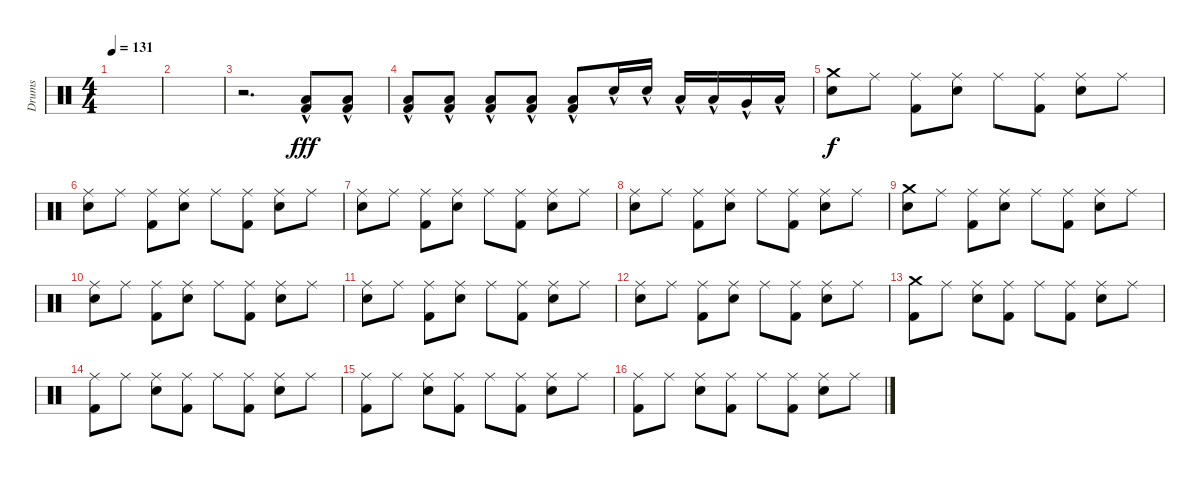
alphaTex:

\track ("Drums" "Drums") {instrument percussion}
\staff {score}
\articulation defaults
\ts (4 4)
\tempo 131
\clef neutral
\ks c
|
|
r.2{d volume 6} ("Kick (hit) 2" "Low Floor Tom (hit)"{hac}).8{dy fff volume 11} ("Kick (hit) 2" "Low Floor Tom (hit)"{hac}).8 |
("Kick (hit) 2"{hac} "Low Floor Tom (hit)"{hac}).8 ("Kick (hit) 2"{hac} "Low Floor Tom (hit)"{hac}).8 ("Kick (hit) 2"{hac} "Low Floor Tom (hit)"{hac}).8 ("Kick (hit) 2"{hac} "Low Floor Tom (hit)"{hac}).8 ("Kick (hit) 2"{hac} "Low Floor Tom (hit)"{hac}).8 "Electric Snare (hit)"{hac}.16 "Electric Snare (hit)"{hac}.16 "Low Tom (hit)"{hac}.16 "Low Tom (hit)"{hac}.16 "Very Low Tom (hit)"{hac}.16 "Low Floor Tom (hit)"{hac}.16 |
("Crash medium (hit)" "Electric Snare (hit)").8{dy f} "Ride (middle)".8 ("Ride (middle)" "Kick (hit) 2").8 ("Ride (middle)" "Electric Snare (hit)").8 "Ride (middle)".8 ("Ride (middle)" "Kick (hit) 2").8 ("Ride (middle)" "Electric Snare (hit)").8 "Ride (middle)".8 |
("Ride (middle)" "Electric Snare (hit)").8 "Ride (middle)".8 ("Ride (middle)" "Kick (hit) 2").8 ("Ride (middle)" "Electric Snare (hit)").8 "Ride (middle)".8 ("Ride (middle)" "Kick (hit) 2").8 ("Ride (middle)" "Electric Snare (hit)").8 "Ride (middle)".8 |
("Ride (middle)" "Electric Snare (hit)").8 "Ride (middle)".8 ("Ride (middle)" "Kick (hit) 2").8 ("Ride (middle)" "Electric Snare (hit)").8 "Ride (middle)".8 ("Ride (middle)" "Kick (hit) 2").8 ("Ride (middle)" "Electric Snare (hit)").8 "Ride (middle)".8 |
("Ride (middle)" "Electric Snare (hit)").8 "Ride (middle)".8 ("Ride (middle)" "Kick (hit) 2").8 ("Ride (middle)" "Electric Snare (hit)").8 "Ride (middle)".8 ("Ride (middle)" "Kick (hit) 2").8 ("Ride (middle)" "Electric Snare (hit)").8 "Ride (middle)".8 |
("Crash medium (hit)" "Electric Snare (hit)").8 "Ride (middle)".8 ("Ride (middle)" "Kick (hit) 2").8 ("Ride (middle)" "Electric Snare (hit)").8 "Ride (middle)".8 ("Ride (middle)" "Kick (hit) 2").8 ("Ride (middle)" "Electric Snare (hit)").8 "Ride (middle)".8 |
("Ride (middle)" "Electric Snare (hit)").8 "Ride (middle)".8 ("Ride (middle)" "Kick (hit) 2").8 ("Ride (middle)" "Electric Snare (hit)").8 "Ride (middle)".8 ("Ride (middle)" "Kick (hit) 2").8 ("Ride (middle)" "Electric Snare (hit)").8 "Ride (middle)".8 |
("Ride (middle)" "Electric Snare (hit)").8 "Ride (middle)".8 ("Ride (middle)" "Kick (hit) 2").8 ("Ride (middle)" "Electric Snare (hit)").8 "Ride (middle)".8 ("Ride (middle)" "Kick (hit) 2").8 ("Ride (middle)" "Electric Snare (hit)").8 "Ride (middle)".8 |
("Ride (middle)" "Electric Snare (hit)").8 "Ride (middle)".8 ("Ride (middle)" "Kick (hit) 2").8 ("Ride (middle)" "Electric Snare (hit)").8 "Ride (middle)".8 ("Ride (middle)" "Kick (hit) 2").8 ("Ride (middle)" "Electric Snare (hit)").8 "Ride (middle)".8 |
("Crash medium (hit)" "Kick (hit) 2").8 "Ride (middle)".8 ("Ride (middle)" "Electric Snare (hit)").8 ("Ride (middle)" "Kick (hit) 2").8 "Ride (middle)".8 ("Ride (middle)" "Kick (hit) 2").8 ("Ride (middle)" "Electric Snare (hit)").8 "Ride (middle)".8 |
("Ride (middle)" "Kick (hit) 2").8 "Ride (middle)".8 ("Ride (middle)" "Electric Snare (hit)").8 ("Ride (middle)" "Kick (hit) 2").8 "Ride (middle)".8 ("Ride (middle)" "Kick (hit) 2").8 ("Ride (middle)" "Electric Snare (hit)").8 "Ride (middle)".8 |
("Ride (middle)" "Kick (hit) 2").8 "Ride (middle)".8 ("Ride (middle)" "Electric Snare (hit)").8 ("Ride (middle)" "Kick (hit) 2").8 "Ride (middle)".8 ("Ride (middle)" "Kick (hit) 2").8 ("Ride (middle)" "Electric Snare (hit)").8 "Ride (middle)".8 |
("Ride (middle)" "Kick (hit) 2").8 "Ride (middle)".8 ("Ride (middle)" "Electric Snare (hit)").8 ("Ride (middle)" "Kick (hit) 2").8 "Ride (middle)".8 ("Ride (middle)" "Kick (hit) 2").8 ("Ride (middle)" "Electric Snare (hit)").8 "Ride (middle)".8
